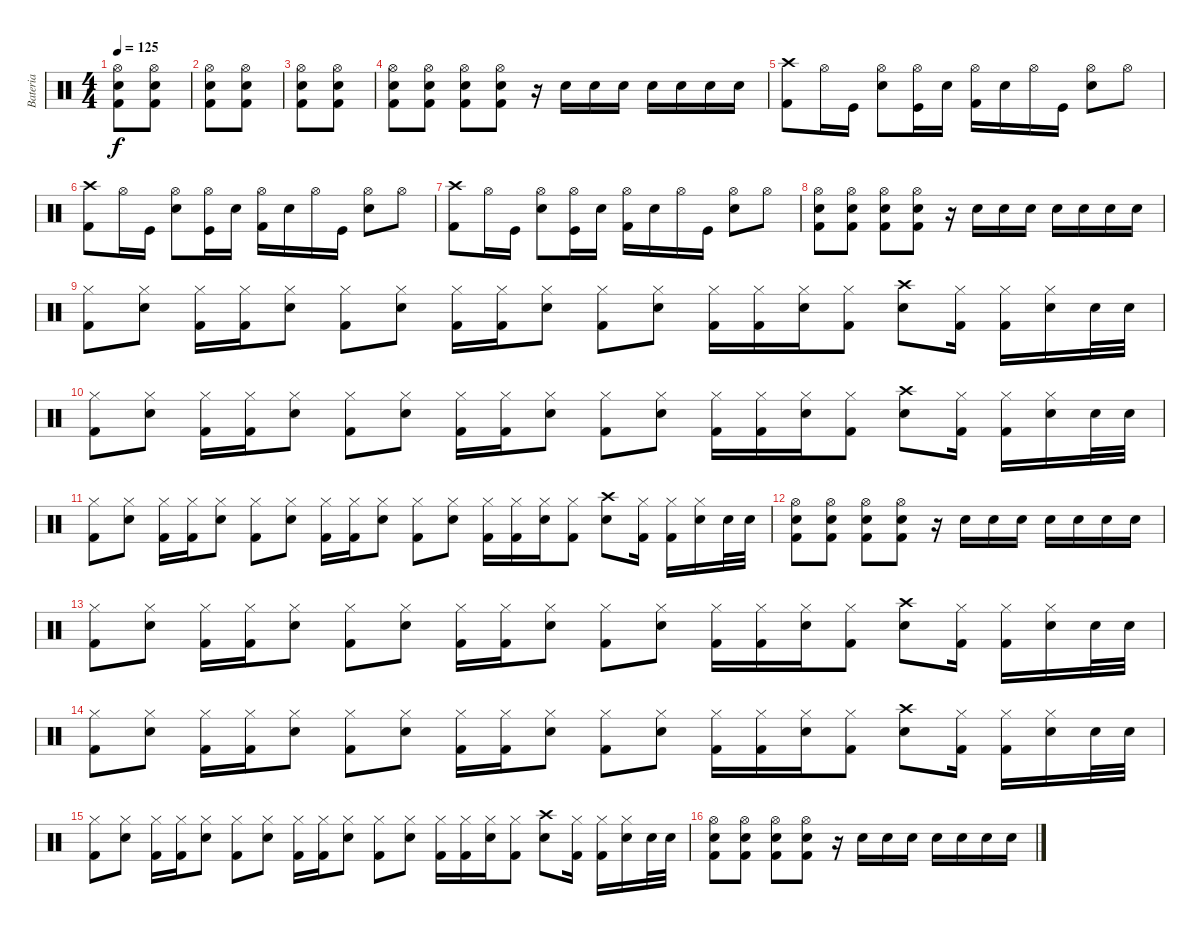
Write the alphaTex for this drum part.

\track ("Bateria" "Bateria") {instrument percussion}
\staff {score}
\articulation defaults
\ts (4 4)
\tempo 125
\clef neutral
\ks c
("Hi-Hat (open)" "Snare (hit) 2" "Kick (hit) 2").8{dy f} ("Hi-Hat (open)" "Snare (hit) 2" "Kick (hit) 2").8 |
("Hi-Hat (open)" "Snare (hit) 2" "Kick (hit) 2").8 ("Hi-Hat (open)" "Snare (hit) 2" "Kick (hit) 2").8 |
("Hi-Hat (open)" "Snare (hit) 2" "Kick (hit) 2").8 ("Hi-Hat (open)" "Snare (hit) 2" "Kick (hit) 2").8 |
("Kick (hit) 2" "Snare (hit) 2" "Hi-Hat (open)").8 ("Kick (hit) 2" "Snare (hit) 2" "Hi-Hat (open)").8 ("Kick (hit) 2" "Snare (hit) 2" "Hi-Hat (open)").8 ("Kick (hit) 2" "Snare (hit) 2" "Hi-Hat (open)").8 r.16 "Snare (hit) 2".16 "Snare (hit) 2".16 "Snare (hit) 2".16 "Snare (hit) 2".16 "Snare (hit) 2".16 "Snare (hit) 2".16 "Snare (hit) 2".16 |
("Crash high (hit)" "Kick (hit) 2").8 "Hi-Hat (open)".16 "Kick (hit)".16 ("Hi-Hat (open)" "Electric Snare (hit)").8 ("Hi-Hat (open)" "Kick (hit)").16 "Electric Snare (hit)".16 ("Kick (hit) 2" "Hi-Hat (open)").16 "Electric Snare (hit)".16 "Hi-Hat (open)".16 "Kick (hit)".16 ("Hi-Hat (open)" "Electric Snare (hit)").8 "Hi-Hat (open)".8 |
("Crash high (hit)" "Kick (hit) 2").8 "Hi-Hat (open)".16 "Kick (hit)".16 ("Hi-Hat (open)" "Electric Snare (hit)").8 ("Hi-Hat (open)" "Kick (hit)").16 "Electric Snare (hit)".16 ("Kick (hit) 2" "Hi-Hat (open)").16 "Electric Snare (hit)".16 "Hi-Hat (open)".16 "Kick (hit)".16 ("Hi-Hat (open)" "Electric Snare (hit)").8 "Hi-Hat (open)".8 |
("Crash high (hit)" "Kick (hit) 2").8 "Hi-Hat (open)".16 "Kick (hit)".16 ("Hi-Hat (open)" "Electric Snare (hit)").8 ("Hi-Hat (open)" "Kick (hit)").16 "Electric Snare (hit)".16 ("Kick (hit) 2" "Hi-Hat (open)").16 "Electric Snare (hit)".16 "Hi-Hat (open)".16 "Kick (hit)".16 ("Hi-Hat (open)" "Electric Snare (hit)").8 "Hi-Hat (open)".8 |
("Kick (hit) 2" "Snare (hit) 2" "Hi-Hat (open)").8 ("Kick (hit) 2" "Snare (hit) 2" "Hi-Hat (open)").8 ("Kick (hit) 2" "Snare (hit) 2" "Hi-Hat (open)").8 ("Kick (hit) 2" "Snare (hit) 2" "Hi-Hat (open)").8 r.16 "Snare (hit) 2".16 "Snare (hit) 2".16 "Snare (hit) 2".16 "Snare (hit) 2".16 "Snare (hit) 2".16 "Snare (hit) 2".16 "Snare (hit) 2".16 |
("Kick (hit) 2" "Hi-Hat (closed)").8 ("Snare (hit) 2" "Hi-Hat (closed)").8 ("Kick (hit) 2" "Hi-Hat (closed)").16 ("Kick (hit) 2" "Hi-Hat (closed)").16 ("Snare (hit) 2" "Hi-Hat (closed)").8 ("Kick (hit) 2" "Hi-Hat (closed)").8 ("Snare (hit) 2" "Hi-Hat (closed)").8 ("Kick (hit) 2" "Hi-Hat (closed)").16 ("Kick (hit) 2" "Hi-Hat (closed)").16 ("Snare (hit) 2" "Hi-Hat (closed)").8 ("Kick (hit) 2" "Hi-Hat (closed)").8 ("Snare (hit) 2" "Hi-Hat (closed)").8 ("Kick (hit) 2" "Hi-Hat (closed)").16 ("Kick (hit) 2" "Hi-Hat (closed)").16 ("Snare (hit) 2" "Hi-Hat (closed)").16 ("Kick (hit) 2" "Hi-Hat (closed)").8 ("Snare (hit) 2" "Crash high (hit)").8 ("Kick (hit) 2" "Hi-Hat (closed)").16 ("Kick (hit) 2" "Hi-Hat (closed)").16 ("Snare (hit) 2" "Hi-Hat (closed)").16 "Snare (hit) 2".32 "Snare (hit) 2".32 |
("Kick (hit) 2" "Hi-Hat (closed)").8 ("Snare (hit) 2" "Hi-Hat (closed)").8 ("Kick (hit) 2" "Hi-Hat (closed)").16 ("Kick (hit) 2" "Hi-Hat (closed)").16 ("Snare (hit) 2" "Hi-Hat (closed)").8 ("Kick (hit) 2" "Hi-Hat (closed)").8 ("Snare (hit) 2" "Hi-Hat (closed)").8 ("Kick (hit) 2" "Hi-Hat (closed)").16 ("Kick (hit) 2" "Hi-Hat (closed)").16 ("Snare (hit) 2" "Hi-Hat (closed)").8 ("Kick (hit) 2" "Hi-Hat (closed)").8 ("Snare (hit) 2" "Hi-Hat (closed)").8 ("Kick (hit) 2" "Hi-Hat (closed)").16 ("Kick (hit) 2" "Hi-Hat (closed)").16 ("Snare (hit) 2" "Hi-Hat (closed)").16 ("Kick (hit) 2" "Hi-Hat (closed)").8 ("Snare (hit) 2" "Crash high (hit)").8 ("Kick (hit) 2" "Hi-Hat (closed)").16 ("Kick (hit) 2" "Hi-Hat (closed)").16 ("Snare (hit) 2" "Hi-Hat (closed)").16 "Snare (hit) 2".32 "Snare (hit) 2".32 |
("Kick (hit) 2" "Hi-Hat (closed)").8 ("Snare (hit) 2" "Hi-Hat (closed)").8 ("Kick (hit) 2" "Hi-Hat (closed)").16 ("Kick (hit) 2" "Hi-Hat (closed)").16 ("Snare (hit) 2" "Hi-Hat (closed)").8 ("Kick (hit) 2" "Hi-Hat (closed)").8 ("Snare (hit) 2" "Hi-Hat (closed)").8 ("Kick (hit) 2" "Hi-Hat (closed)").16 ("Kick (hit) 2" "Hi-Hat (closed)").16 ("Snare (hit) 2" "Hi-Hat (closed)").8 ("Kick (hit) 2" "Hi-Hat (closed)").8 ("Snare (hit) 2" "Hi-Hat (closed)").8 ("Kick (hit) 2" "Hi-Hat (closed)").16 ("Kick (hit) 2" "Hi-Hat (closed)").16 ("Snare (hit) 2" "Hi-Hat (closed)").16 ("Kick (hit) 2" "Hi-Hat (closed)").8 ("Snare (hit) 2" "Crash high (hit)").8 ("Kick (hit) 2" "Hi-Hat (closed)").16 ("Kick (hit) 2" "Hi-Hat (closed)").16 ("Snare (hit) 2" "Hi-Hat (closed)").16 "Snare (hit) 2".32 "Snare (hit) 2".32 |
("Kick (hit) 2" "Snare (hit) 2" "Hi-Hat (open)").8 ("Kick (hit) 2" "Snare (hit) 2" "Hi-Hat (open)").8 ("Kick (hit) 2" "Snare (hit) 2" "Hi-Hat (open)").8 ("Kick (hit) 2" "Snare (hit) 2" "Hi-Hat (open)").8 r.16 "Snare (hit) 2".16 "Snare (hit) 2".16 "Snare (hit) 2".16 "Snare (hit) 2".16 "Snare (hit) 2".16 "Snare (hit) 2".16 "Snare (hit) 2".16 |
("Kick (hit) 2" "Hi-Hat (closed)").8 ("Snare (hit) 2" "Hi-Hat (closed)").8 ("Kick (hit) 2" "Hi-Hat (closed)").16 ("Kick (hit) 2" "Hi-Hat (closed)").16 ("Snare (hit) 2" "Hi-Hat (closed)").8 ("Kick (hit) 2" "Hi-Hat (closed)").8 ("Snare (hit) 2" "Hi-Hat (closed)").8 ("Kick (hit) 2" "Hi-Hat (closed)").16 ("Kick (hit) 2" "Hi-Hat (closed)").16 ("Snare (hit) 2" "Hi-Hat (closed)").8 ("Kick (hit) 2" "Hi-Hat (closed)").8 ("Snare (hit) 2" "Hi-Hat (closed)").8 ("Kick (hit) 2" "Hi-Hat (closed)").16 ("Kick (hit) 2" "Hi-Hat (closed)").16 ("Snare (hit) 2" "Hi-Hat (closed)").16 ("Kick (hit) 2" "Hi-Hat (closed)").8 ("Snare (hit) 2" "Crash high (hit)").8 ("Kick (hit) 2" "Hi-Hat (closed)").16 ("Kick (hit) 2" "Hi-Hat (closed)").16 ("Snare (hit) 2" "Hi-Hat (closed)").16 "Snare (hit) 2".32 "Snare (hit) 2".32 |
("Kick (hit) 2" "Hi-Hat (closed)").8 ("Snare (hit) 2" "Hi-Hat (closed)").8 ("Kick (hit) 2" "Hi-Hat (closed)").16 ("Kick (hit) 2" "Hi-Hat (closed)").16 ("Snare (hit) 2" "Hi-Hat (closed)").8 ("Kick (hit) 2" "Hi-Hat (closed)").8 ("Snare (hit) 2" "Hi-Hat (closed)").8 ("Kick (hit) 2" "Hi-Hat (closed)").16 ("Kick (hit) 2" "Hi-Hat (closed)").16 ("Snare (hit) 2" "Hi-Hat (closed)").8 ("Kick (hit) 2" "Hi-Hat (closed)").8 ("Snare (hit) 2" "Hi-Hat (closed)").8 ("Kick (hit) 2" "Hi-Hat (closed)").16 ("Kick (hit) 2" "Hi-Hat (closed)").16 ("Snare (hit) 2" "Hi-Hat (closed)").16 ("Kick (hit) 2" "Hi-Hat (closed)").8 ("Snare (hit) 2" "Crash high (hit)").8 ("Kick (hit) 2" "Hi-Hat (closed)").16 ("Kick (hit) 2" "Hi-Hat (closed)").16 ("Snare (hit) 2" "Hi-Hat (closed)").16 "Snare (hit) 2".32 "Snare (hit) 2".32 |
("Kick (hit) 2" "Hi-Hat (closed)").8 ("Snare (hit) 2" "Hi-Hat (closed)").8 ("Kick (hit) 2" "Hi-Hat (closed)").16 ("Kick (hit) 2" "Hi-Hat (closed)").16 ("Snare (hit) 2" "Hi-Hat (closed)").8 ("Kick (hit) 2" "Hi-Hat (closed)").8 ("Snare (hit) 2" "Hi-Hat (closed)").8 ("Kick (hit) 2" "Hi-Hat (closed)").16 ("Kick (hit) 2" "Hi-Hat (closed)").16 ("Snare (hit) 2" "Hi-Hat (closed)").8 ("Kick (hit) 2" "Hi-Hat (closed)").8 ("Snare (hit) 2" "Hi-Hat (closed)").8 ("Kick (hit) 2" "Hi-Hat (closed)").16 ("Kick (hit) 2" "Hi-Hat (closed)").16 ("Snare (hit) 2" "Hi-Hat (closed)").16 ("Kick (hit) 2" "Hi-Hat (closed)").8 ("Snare (hit) 2" "Crash high (hit)").8 ("Kick (hit) 2" "Hi-Hat (closed)").16 ("Kick (hit) 2" "Hi-Hat (closed)").16 ("Snare (hit) 2" "Hi-Hat (closed)").16 "Snare (hit) 2".32 "Snare (hit) 2".32 |
("Kick (hit) 2" "Snare (hit) 2" "Hi-Hat (open)").8 ("Kick (hit) 2" "Snare (hit) 2" "Hi-Hat (open)").8 ("Kick (hit) 2" "Snare (hit) 2" "Hi-Hat (open)").8 ("Kick (hit) 2" "Snare (hit) 2" "Hi-Hat (open)").8 r.16 "Snare (hit) 2".16 "Snare (hit) 2".16 "Snare (hit) 2".16 "Snare (hit) 2".16 "Snare (hit) 2".16 "Snare (hit) 2".16 "Snare (hit) 2".16
